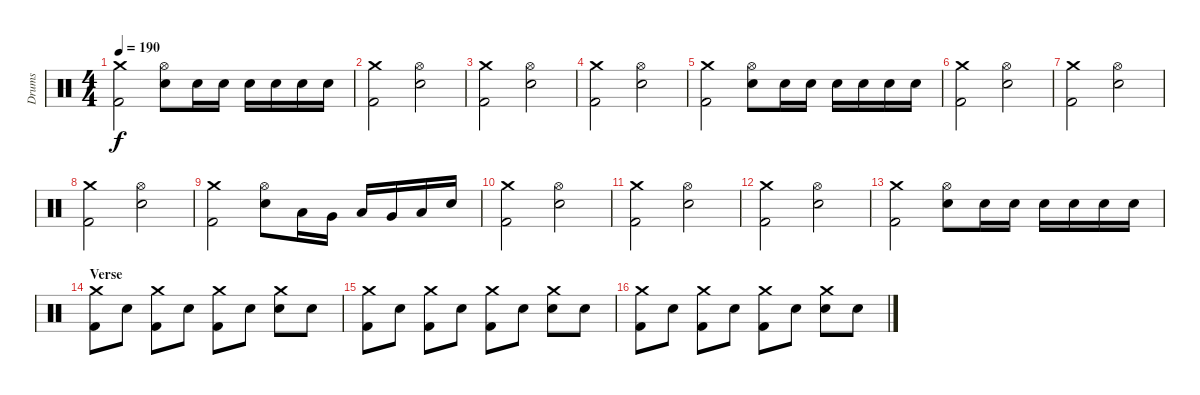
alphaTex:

\track ("Drums" "Drums") {instrument percussion}
\staff {score}
\articulation defaults
\ts (4 4)
\tempo 190
\clef neutral
\ks c
("Crash medium (hit)" "Kick (hit) 2").2{dy f} ("Hi-Hat (open)" "Snare (hit) 2").8 "Snare (hit) 2".16 "Snare (hit) 2".16 "Snare (hit) 2".16 "Snare (hit) 2".16 "Snare (hit) 2".16 "Snare (hit) 2".16 |
("Crash medium (hit)" "Kick (hit) 2").2 ("Hi-Hat (open)" "Snare (hit) 2").2 |
("Crash medium (hit)" "Kick (hit) 2").2 ("Hi-Hat (open)" "Snare (hit) 2").2 |
("Crash medium (hit)" "Kick (hit) 2").2 ("Hi-Hat (open)" "Snare (hit) 2").2 |
("Crash medium (hit)" "Kick (hit) 2").2 ("Hi-Hat (open)" "Snare (hit) 2").8 "Snare (hit) 2".16 "Snare (hit) 2".16 "Snare (hit) 2".16 "Snare (hit) 2".16 "Snare (hit) 2".16 "Snare (hit) 2".16 |
("Crash medium (hit)" "Kick (hit) 2").2 ("Hi-Hat (open)" "Snare (hit) 2").2 |
("Crash medium (hit)" "Kick (hit) 2").2 ("Hi-Hat (open)" "Snare (hit) 2").2 |
("Crash medium (hit)" "Kick (hit) 2").2 ("Hi-Hat (open)" "Snare (hit) 2").2 |
("Crash medium (hit)" "Kick (hit) 2").2 ("Hi-Hat (open)" "Snare (hit) 2").8 "Low Floor Tom (hit)".16 "Very Low Tom (hit)".16 "Low Floor Tom (hit)".16 "Very Low Tom (hit)".16 "Low Floor Tom (hit)".16 "Snare (hit) 2".16 |
("Crash medium (hit)" "Kick (hit) 2").2 ("Hi-Hat (open)" "Snare (hit) 2").2 |
("Crash medium (hit)" "Kick (hit) 2").2 ("Hi-Hat (open)" "Snare (hit) 2").2 |
("Crash medium (hit)" "Kick (hit) 2").2 ("Hi-Hat (open)" "Snare (hit) 2").2 |
("Crash medium (hit)" "Kick (hit) 2").2 ("Hi-Hat (open)" "Snare (hit) 2").8 "Snare (hit) 2".16 "Snare (hit) 2".16 "Snare (hit) 2".16 "Snare (hit) 2".16 "Snare (hit) 2".16 "Snare (hit) 2".16 |
\section ("" "Verse")
("Crash medium (hit)" "Kick (hit) 2").8 "Snare (hit) 2".8 ("Crash medium (hit)" "Kick (hit) 2").8 "Snare (hit) 2".8 ("Crash medium (hit)" "Kick (hit) 2").8 "Snare (hit) 2".8 ("Crash medium (hit)" "Snare (hit) 2").8 "Snare (hit) 2".8 |
("Crash medium (hit)" "Kick (hit) 2").8 "Snare (hit) 2".8 ("Crash medium (hit)" "Kick (hit) 2").8 "Snare (hit) 2".8 ("Crash medium (hit)" "Kick (hit) 2").8 "Snare (hit) 2".8 ("Crash medium (hit)" "Snare (hit) 2").8 "Snare (hit) 2".8 |
("Crash medium (hit)" "Kick (hit) 2").8 "Snare (hit) 2".8 ("Crash medium (hit)" "Kick (hit) 2").8 "Snare (hit) 2".8 ("Crash medium (hit)" "Kick (hit) 2").8 "Snare (hit) 2".8 ("Crash medium (hit)" "Snare (hit) 2").8 "Snare (hit) 2".8
